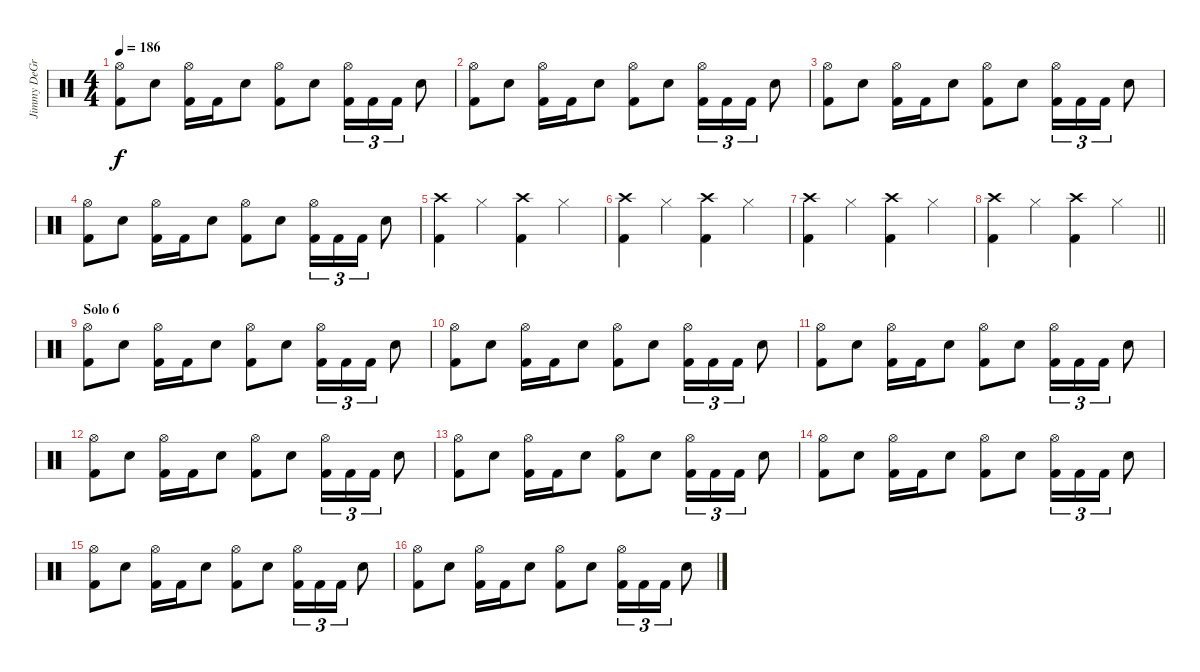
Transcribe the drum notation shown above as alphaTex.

\track ("Jimmy DeGrasso" "Jimmy DeGr") {instrument percussion}
\staff {score}
\articulation defaults
\ts (4 4)
\tempo 186
\clef neutral
\ks c
("Hi-Hat (open)" "Kick (hit) 2").8{dy f} "Electric Snare (hit)".8 ("Hi-Hat (open)" "Kick (hit) 2").16 "Kick (hit) 2".16 "Electric Snare (hit)".8 ("Hi-Hat (open)" "Kick (hit) 2").8 "Electric Snare (hit)".8 ("Hi-Hat (open)" "Kick (hit) 2").16{tu (3 2)} "Kick (hit) 2".16{tu (3 2)} "Kick (hit) 2".16{tu (3 2)} "Electric Snare (hit)".8 |
("Hi-Hat (open)" "Kick (hit) 2").8 "Electric Snare (hit)".8 ("Hi-Hat (open)" "Kick (hit) 2").16 "Kick (hit) 2".16 "Electric Snare (hit)".8 ("Hi-Hat (open)" "Kick (hit) 2").8 "Electric Snare (hit)".8 ("Hi-Hat (open)" "Kick (hit) 2").16{tu (3 2)} "Kick (hit) 2".16{tu (3 2)} "Kick (hit) 2".16{tu (3 2)} "Electric Snare (hit)".8 |
("Hi-Hat (open)" "Kick (hit) 2").8 "Electric Snare (hit)".8 ("Hi-Hat (open)" "Kick (hit) 2").16 "Kick (hit) 2".16 "Electric Snare (hit)".8 ("Hi-Hat (open)" "Kick (hit) 2").8 "Electric Snare (hit)".8 ("Hi-Hat (open)" "Kick (hit) 2").16{tu (3 2)} "Kick (hit) 2".16{tu (3 2)} "Kick (hit) 2".16{tu (3 2)} "Electric Snare (hit)".8 |
("Hi-Hat (open)" "Kick (hit) 2").8 "Electric Snare (hit)".8 ("Hi-Hat (open)" "Kick (hit) 2").16 "Kick (hit) 2".16 "Electric Snare (hit)".8 ("Hi-Hat (open)" "Kick (hit) 2").8 "Electric Snare (hit)".8 ("Hi-Hat (open)" "Kick (hit) 2").16{tu (3 2)} "Kick (hit) 2".16{tu (3 2)} "Kick (hit) 2".16{tu (3 2)} "Electric Snare (hit)".8 |
("Crash high (hit)" "Kick (hit) 2").4 "Hi-Hat (closed)".4 ("Crash high (hit)" "Kick (hit) 2").4 "Hi-Hat (closed)".4 |
("Crash high (hit)" "Kick (hit) 2").4 "Hi-Hat (closed)".4 ("Crash high (hit)" "Kick (hit) 2").4 "Hi-Hat (closed)".4 |
("Crash high (hit)" "Kick (hit) 2").4 "Hi-Hat (closed)".4 ("Crash high (hit)" "Kick (hit) 2").4 "Hi-Hat (closed)".4 |
\barLineRight lightlight
("Crash high (hit)" "Kick (hit) 2").4 "Hi-Hat (closed)".4 ("Crash high (hit)" "Kick (hit) 2").4 "Hi-Hat (closed)".4 |
\section ("" "Solo 6")
("Hi-Hat (open)" "Kick (hit) 2").8 "Electric Snare (hit)".8 ("Hi-Hat (open)" "Kick (hit) 2").16 "Kick (hit) 2".16 "Electric Snare (hit)".8 ("Hi-Hat (open)" "Kick (hit) 2").8 "Electric Snare (hit)".8 ("Hi-Hat (open)" "Kick (hit) 2").16{tu (3 2)} "Kick (hit) 2".16{tu (3 2)} "Kick (hit) 2".16{tu (3 2)} "Electric Snare (hit)".8 |
("Hi-Hat (open)" "Kick (hit) 2").8 "Electric Snare (hit)".8 ("Hi-Hat (open)" "Kick (hit) 2").16 "Kick (hit) 2".16 "Electric Snare (hit)".8 ("Hi-Hat (open)" "Kick (hit) 2").8 "Electric Snare (hit)".8 ("Hi-Hat (open)" "Kick (hit) 2").16{tu (3 2)} "Kick (hit) 2".16{tu (3 2)} "Kick (hit) 2".16{tu (3 2)} "Electric Snare (hit)".8 |
("Hi-Hat (open)" "Kick (hit) 2").8 "Electric Snare (hit)".8 ("Hi-Hat (open)" "Kick (hit) 2").16 "Kick (hit) 2".16 "Electric Snare (hit)".8 ("Hi-Hat (open)" "Kick (hit) 2").8 "Electric Snare (hit)".8 ("Hi-Hat (open)" "Kick (hit) 2").16{tu (3 2)} "Kick (hit) 2".16{tu (3 2)} "Kick (hit) 2".16{tu (3 2)} "Electric Snare (hit)".8 |
("Hi-Hat (open)" "Kick (hit) 2").8 "Electric Snare (hit)".8 ("Hi-Hat (open)" "Kick (hit) 2").16 "Kick (hit) 2".16 "Electric Snare (hit)".8 ("Hi-Hat (open)" "Kick (hit) 2").8 "Electric Snare (hit)".8 ("Hi-Hat (open)" "Kick (hit) 2").16{tu (3 2)} "Kick (hit) 2".16{tu (3 2)} "Kick (hit) 2".16{tu (3 2)} "Electric Snare (hit)".8 |
("Hi-Hat (open)" "Kick (hit) 2").8 "Electric Snare (hit)".8 ("Hi-Hat (open)" "Kick (hit) 2").16 "Kick (hit) 2".16 "Electric Snare (hit)".8 ("Hi-Hat (open)" "Kick (hit) 2").8 "Electric Snare (hit)".8 ("Hi-Hat (open)" "Kick (hit) 2").16{tu (3 2)} "Kick (hit) 2".16{tu (3 2)} "Kick (hit) 2".16{tu (3 2)} "Electric Snare (hit)".8 |
("Hi-Hat (open)" "Kick (hit) 2").8 "Electric Snare (hit)".8 ("Hi-Hat (open)" "Kick (hit) 2").16 "Kick (hit) 2".16 "Electric Snare (hit)".8 ("Hi-Hat (open)" "Kick (hit) 2").8 "Electric Snare (hit)".8 ("Hi-Hat (open)" "Kick (hit) 2").16{tu (3 2)} "Kick (hit) 2".16{tu (3 2)} "Kick (hit) 2".16{tu (3 2)} "Electric Snare (hit)".8 |
("Hi-Hat (open)" "Kick (hit) 2").8 "Electric Snare (hit)".8 ("Hi-Hat (open)" "Kick (hit) 2").16 "Kick (hit) 2".16 "Electric Snare (hit)".8 ("Hi-Hat (open)" "Kick (hit) 2").8 "Electric Snare (hit)".8 ("Hi-Hat (open)" "Kick (hit) 2").16{tu (3 2)} "Kick (hit) 2".16{tu (3 2)} "Kick (hit) 2".16{tu (3 2)} "Electric Snare (hit)".8 |
("Hi-Hat (open)" "Kick (hit) 2").8 "Electric Snare (hit)".8 ("Hi-Hat (open)" "Kick (hit) 2").16 "Kick (hit) 2".16 "Electric Snare (hit)".8 ("Hi-Hat (open)" "Kick (hit) 2").8 "Electric Snare (hit)".8 ("Hi-Hat (open)" "Kick (hit) 2").16{tu (3 2)} "Kick (hit) 2".16{tu (3 2)} "Kick (hit) 2".16{tu (3 2)} "Electric Snare (hit)".8
